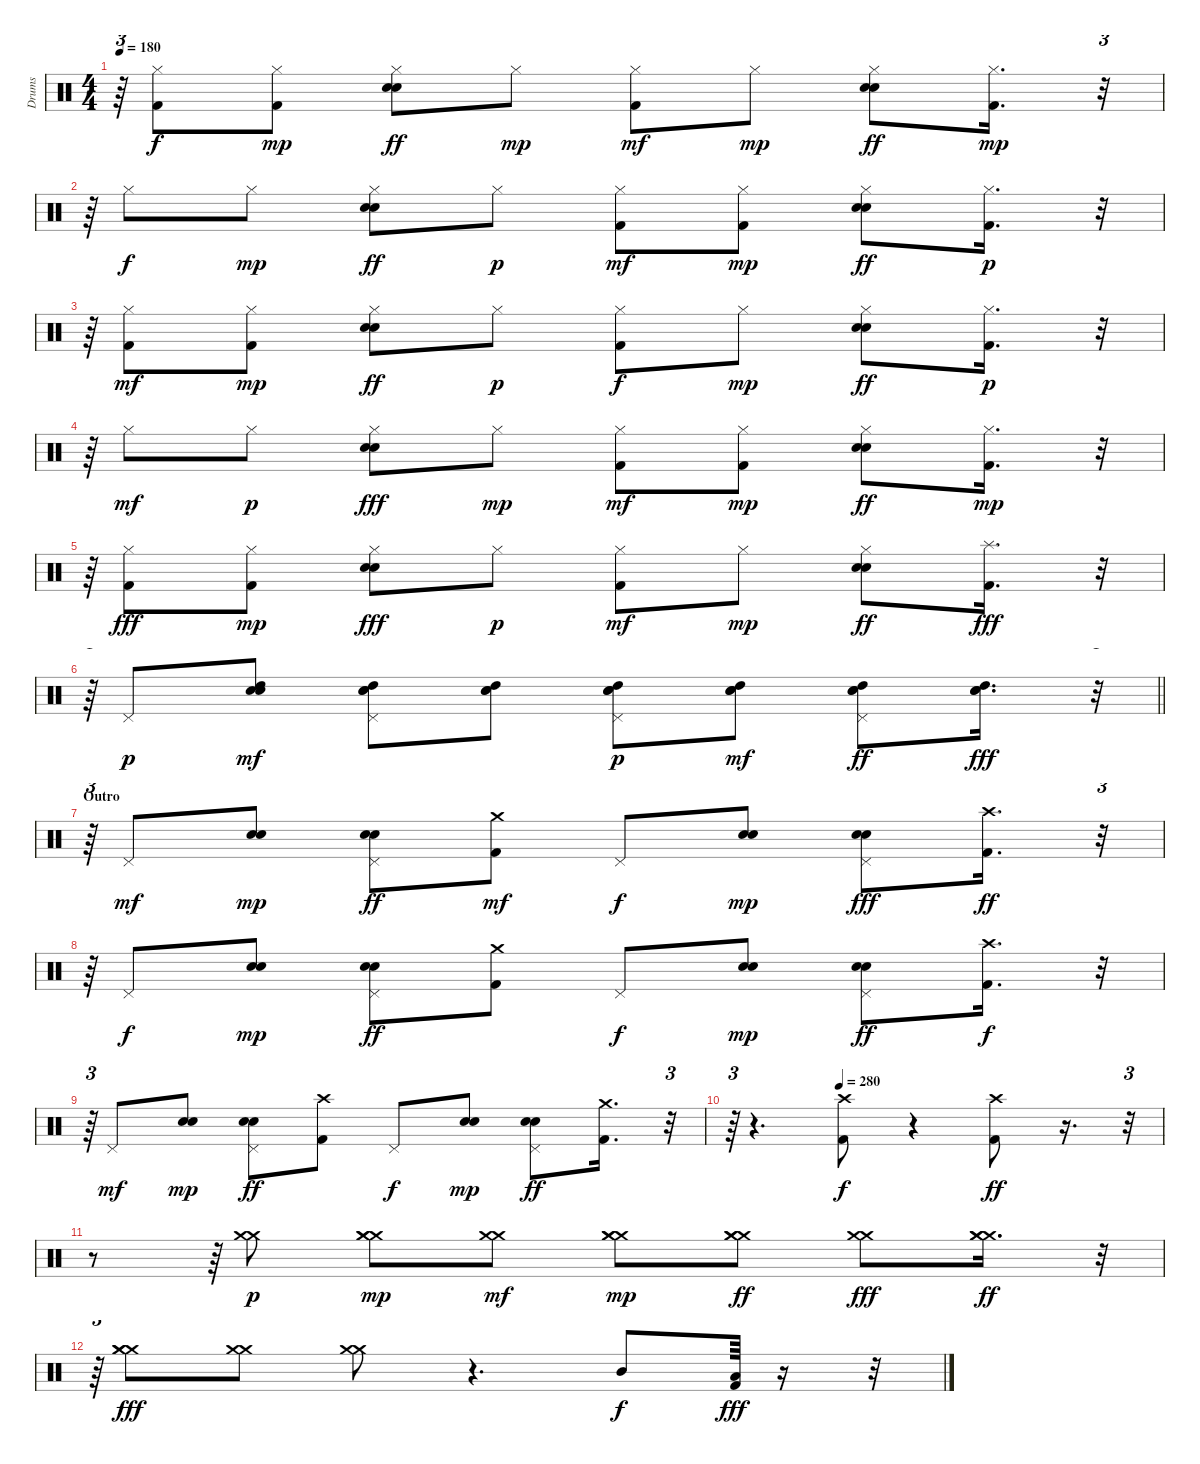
\track ("Drums" "Drums") {instrument percussion}
\staff {score}
\articulation defaults
\ts (4 4)
\tempo 180
\clef neutral
\ks c
r.64{tu (3 2) dy mp} ("Kick (hit) 2" "Hi-Hat (closed)").8{dy f} ("Kick (hit) 2" "Hi-Hat (closed)").8{dy mp} ("Electric Snare (hit)" "Snare (hit) 2" "Hi-Hat (closed)").8{dy ff} "Hi-Hat (closed)".8{dy mp} ("Kick (hit) 2" "Hi-Hat (closed)").8{dy mf} "Hi-Hat (closed)".8{dy mp} ("Electric Snare (hit)" "Snare (hit) 2" "Hi-Hat (closed)").8{dy ff} ("Kick (hit) 2" "Hi-Hat (closed)").16{d dy mp} r.32{tu (3 2)} |
r.64{tu (3 2)} "Hi-Hat (closed)".8{dy f} "Hi-Hat (closed)".8{dy mp} ("Electric Snare (hit)" "Snare (hit) 2" "Hi-Hat (closed)").8{dy ff} "Hi-Hat (closed)".8{dy p} ("Kick (hit) 2" "Hi-Hat (closed)").8{dy mf} ("Kick (hit) 2" "Hi-Hat (closed)").8{dy mp} ("Electric Snare (hit)" "Snare (hit) 2" "Hi-Hat (closed)").8{dy ff} ("Kick (hit) 2" "Hi-Hat (closed)").16{d dy p} r.32{tu (3 2)} |
r.64{tu (3 2)} ("Kick (hit) 2" "Hi-Hat (closed)").8{dy mf} ("Kick (hit) 2" "Hi-Hat (closed)").8{dy mp} ("Electric Snare (hit)" "Snare (hit) 2" "Hi-Hat (closed)").8{dy ff} "Hi-Hat (closed)".8{dy p} ("Kick (hit) 2" "Hi-Hat (closed)").8{dy f} "Hi-Hat (closed)".8{dy mp} ("Electric Snare (hit)" "Snare (hit) 2" "Hi-Hat (closed)").8{dy ff} ("Kick (hit) 2" "Hi-Hat (closed)").16{d dy p} r.32{tu (3 2)} |
r.64{tu (3 2)} "Hi-Hat (closed)".8{dy mf} "Hi-Hat (closed)".8{dy p} ("Electric Snare (hit)" "Snare (hit) 2" "Hi-Hat (closed)").8{dy fff} "Hi-Hat (closed)".8{dy mp} ("Kick (hit) 2" "Hi-Hat (closed)").8{dy mf} ("Kick (hit) 2" "Hi-Hat (closed)").8{dy mp} ("Electric Snare (hit)" "Snare (hit) 2" "Hi-Hat (closed)").8{dy ff} ("Kick (hit) 2" "Hi-Hat (closed)").16{d dy mp} r.32{tu (3 2)} |
r.64{tu (3 2)} ("Kick (hit) 2" "Hi-Hat (closed)").8{dy fff} ("Kick (hit) 2" "Hi-Hat (closed)").8{dy mp} ("Electric Snare (hit)" "Snare (hit) 2" "Hi-Hat (closed)").8{dy fff} "Hi-Hat (closed)".8{dy p} ("Kick (hit) 2" "Hi-Hat (closed)").8{dy mf} "Hi-Hat (closed)".8{dy mp} ("Electric Snare (hit)" "Snare (hit) 2" "Hi-Hat (closed)").8{dy ff} ("Kick (hit) 2" "Splash (hit)").16{d dy fff} r.32{tu (3 2)} |
\barLineRight lightlight
r.64{tu (3 2)} "Pedal Hi-Hat (hit)".8{dy p} ("Electric Snare (hit)" "Snare (hit) 2" "High Tom (hit)").8{dy mf} ("Electric Snare (hit)" "Snare (hit) 2" "High Tom (hit)" "Pedal Hi-Hat (hit)").8 ("Electric Snare (hit)" "Snare (hit) 2" "High Tom (hit)").8 ("Electric Snare (hit)" "Snare (hit) 2" "High Tom (hit)" "Pedal Hi-Hat (hit)").8{dy p} ("Electric Snare (hit)" "Snare (hit) 2" "High Tom (hit)").8{dy mf} ("Electric Snare (hit)" "Snare (hit) 2" "High Tom (hit)" "Pedal Hi-Hat (hit)").8{dy ff} ("Electric Snare (hit)" "Snare (hit) 2" "High Tom (hit)").16{d dy fff} r.32{tu (3 2)} |
\section ("" "Outro")
r.64{tu (3 2)} "Pedal Hi-Hat (hit)".8{dy mf} ("Electric Snare (hit)" "Snare (hit) 2").8{dy mp} ("Electric Snare (hit)" "Snare (hit) 2" "Pedal Hi-Hat (hit)").8{dy ff} ("Kick (hit) 2" "Crash medium (hit)").8{dy mf} "Pedal Hi-Hat (hit)".8{dy f} ("Electric Snare (hit)" "Snare (hit) 2").8{dy mp} ("Electric Snare (hit)" "Snare (hit) 2" "Pedal Hi-Hat (hit)").8{dy fff} ("Kick (hit) 2" "Crash high (hit)").16{d dy ff} r.32{tu (3 2)} |
r.64{tu (3 2)} "Pedal Hi-Hat (hit)".8{dy f} ("Electric Snare (hit)" "Snare (hit) 2").8{dy mp} ("Electric Snare (hit)" "Snare (hit) 2" "Pedal Hi-Hat (hit)").8{dy ff} ("Kick (hit) 2" "Crash medium (hit)").8 "Pedal Hi-Hat (hit)".8{dy f} ("Electric Snare (hit)" "Snare (hit) 2").8{dy mp} ("Electric Snare (hit)" "Snare (hit) 2" "Pedal Hi-Hat (hit)").8{dy ff} ("Kick (hit) 2" "Crash high (hit)").16{d dy f} r.32{tu (3 2)} |
r.64{tu (3 2)} "Pedal Hi-Hat (hit)".8{dy mf} ("Electric Snare (hit)" "Snare (hit) 2").8{dy mp} ("Electric Snare (hit)" "Snare (hit) 2" "Pedal Hi-Hat (hit)").8{dy ff} ("Kick (hit) 2" "Crash high (hit)").8 "Pedal Hi-Hat (hit)".8{dy f} ("Electric Snare (hit)" "Snare (hit) 2").8{dy mp} ("Electric Snare (hit)" "Snare (hit) 2" "Pedal Hi-Hat (hit)").8{dy ff} ("Kick (hit) 2" "Crash medium (hit)").16{d} r.32{tu (3 2)} |
\tempo (280 0.25)
r.64{tu (3 2)} r.4{d} ("Kick (hit) 2" "Crash high (hit)").8{dy f} r.4 ("Kick (hit) 2" "Crash high (hit)").8{dy ff} r.16{d} r.32{tu (3 2)} |
r.8 r.64{tu (3 2)} ("Crash medium (hit)" "Crash medium (hit)").8{dy p} ("Crash medium (hit)" "Crash medium (hit)" "Crash medium (hit)").8{dy mp} ("Crash medium (hit)" "Crash medium (hit)").8{dy mf} ("Crash medium (hit)" "Crash medium (hit)" "Crash medium (hit)").8{dy mp} ("Crash medium (hit)" "Crash medium (hit)" "Crash medium (hit)").8{dy ff} ("Crash medium (hit)" "Crash medium (hit)").8{dy fff} ("Crash medium (hit)" "Crash medium (hit)" "Crash medium (hit)").16{d dy ff} r.32{tu (3 2)} |
r.64{tu (3 2)} ("Crash medium (hit)" "Crash medium (hit)" "Crash medium (hit)").8{dy fff} ("Crash medium (hit)" "Crash medium (hit)").8 ("Crash medium (hit)" "Crash medium (hit)").8 r.4{d} "Mid Tom (hit)".8{dy f} ("Low Tom (hit)" "Kick (hit) 2").64{dy fff} r.16 r.32
